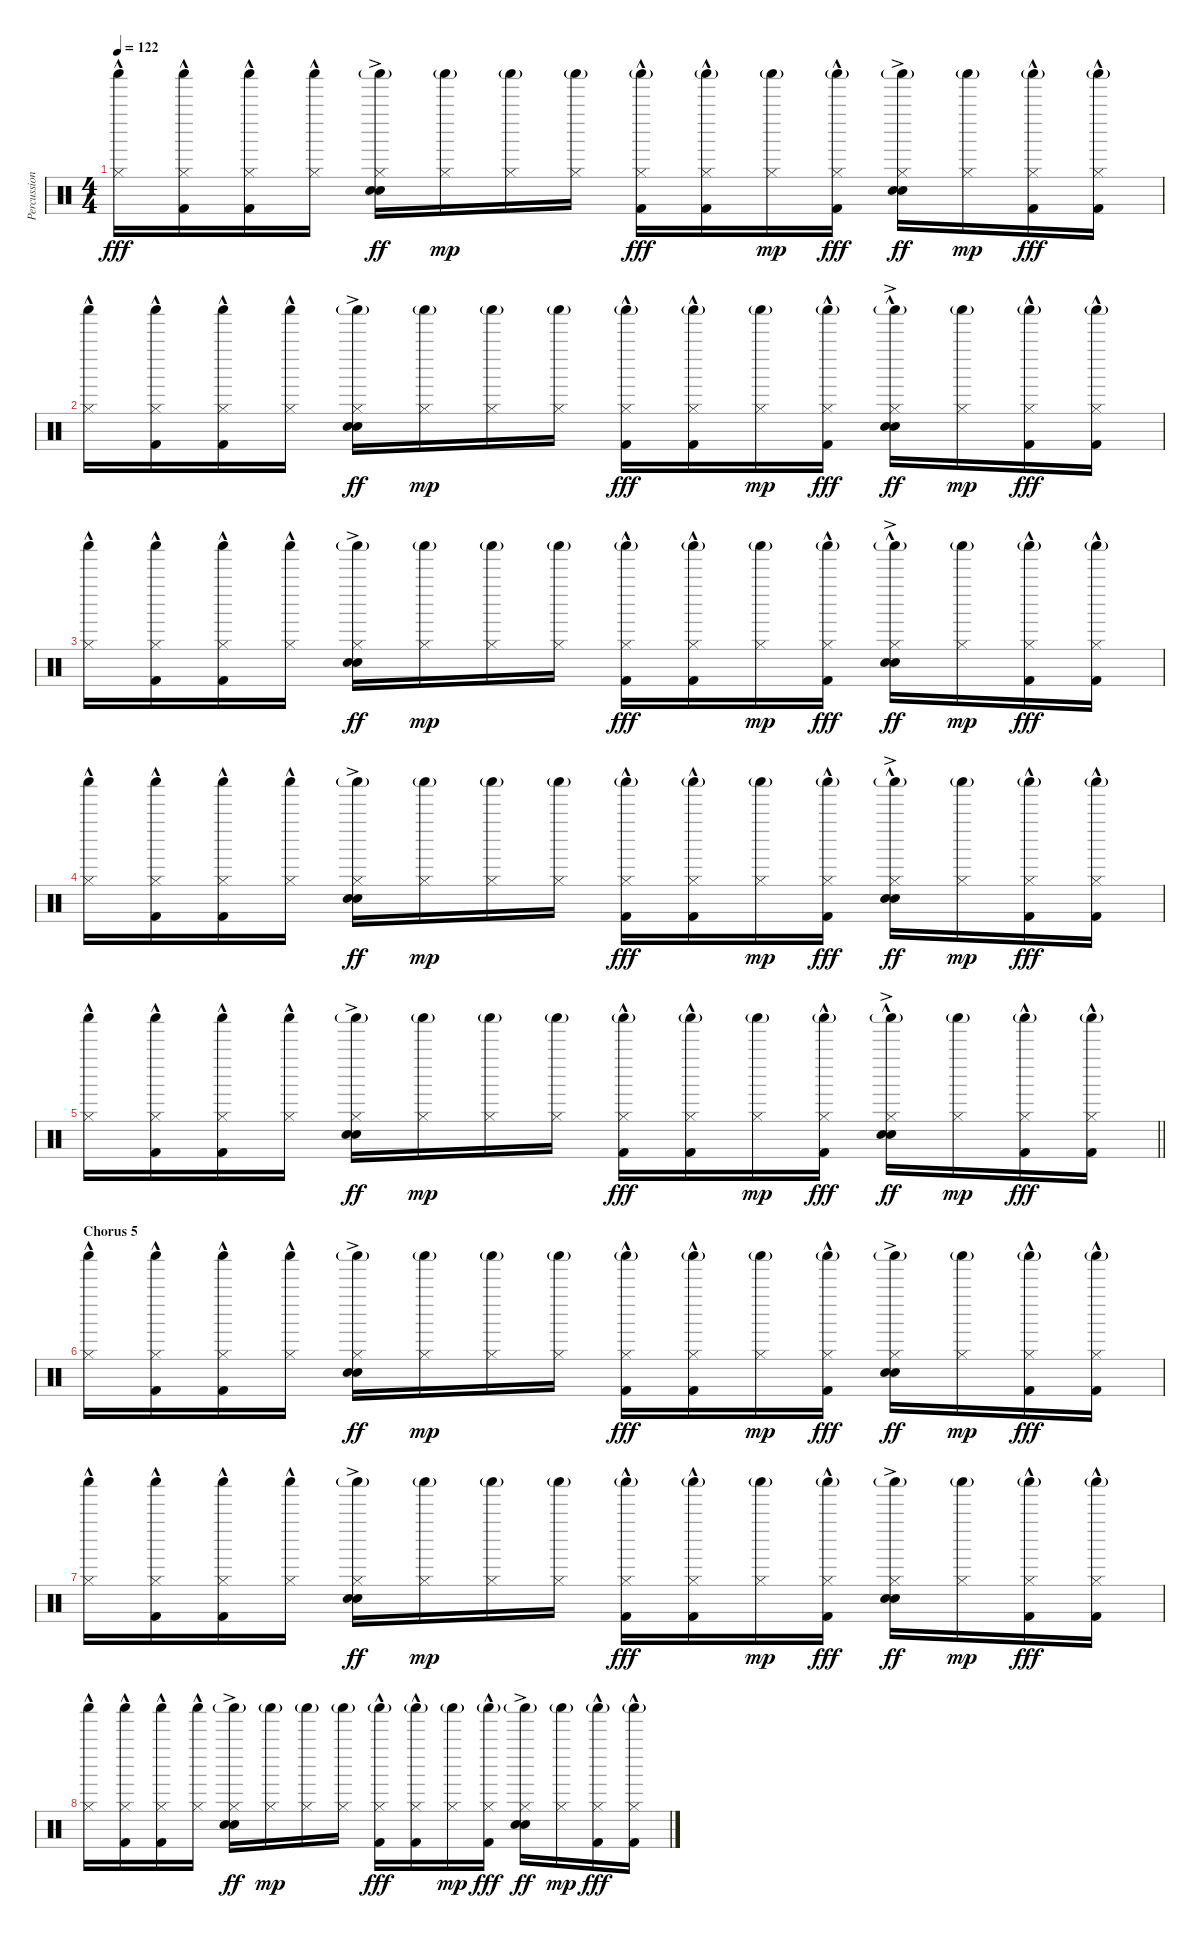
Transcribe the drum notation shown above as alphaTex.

\track ("Percussion" "Percussion") {instrument percussion}
\staff {score}
\articulation defaults
\ts (4 4)
\tempo 122
\clef neutral
\ks c
("Shaker (hit)" "Hi-Hat (closed)"{hac}).16{dy fff} ("Shaker (hit)" "Hi-Hat (closed)"{hac} "Kick (hit) 2"{hac}).16 ("Shaker (hit)" "Hi-Hat (closed)"{hac} "Kick (hit) 2"{hac}).16 ("Shaker (hit)" "Hi-Hat (closed)"{hac}).16 ("Shaker (hit)"{g} "Hi-Hat (closed)" "Hand Clap (hit)" "Snare (hit) 2"{ac}).16{dy ff} ("Shaker (hit)"{g} "Hi-Hat (closed)").16{dy mp} ("Shaker (hit)"{g} "Hi-Hat (closed)").16 ("Shaker (hit)"{g} "Hi-Hat (closed)").16 ("Shaker (hit)"{g} "Hi-Hat (closed)" "Kick (hit) 2"{hac}).16{dy fff} ("Shaker (hit)"{g} "Hi-Hat (closed)" "Kick (hit) 2"{hac}).16 ("Shaker (hit)"{g} "Hi-Hat (closed)").16{dy mp} ("Shaker (hit)"{g} "Hi-Hat (closed)" "Kick (hit) 2"{hac}).16{dy fff} ("Shaker (hit)"{g} "Hi-Hat (closed)" "Hand Clap (hit)"{ac} "Snare (hit) 2"{ac}).16{dy ff} ("Shaker (hit)"{g} "Hi-Hat (closed)").16{dy mp} ("Shaker (hit)"{g} "Hi-Hat (closed)" "Kick (hit) 2"{hac}).16{dy fff} ("Shaker (hit)"{g} "Hi-Hat (closed)" "Kick (hit) 2"{hac}).16 |
("Shaker (hit)" "Hi-Hat (closed)"{hac}).16 ("Shaker (hit)" "Hi-Hat (closed)"{hac} "Kick (hit) 2"{hac}).16 ("Shaker (hit)" "Hi-Hat (closed)"{hac} "Kick (hit) 2"{hac}).16 ("Shaker (hit)" "Hi-Hat (closed)"{hac}).16 ("Shaker (hit)"{g} "Hi-Hat (closed)" "Hand Clap (hit)"{ac} "Snare (hit) 2"{ac}).16{dy ff} ("Shaker (hit)"{g} "Hi-Hat (closed)").16{dy mp} ("Shaker (hit)"{g} "Hi-Hat (closed)").16 ("Shaker (hit)"{g} "Hi-Hat (closed)").16 ("Shaker (hit)"{g} "Hi-Hat (closed)" "Kick (hit) 2"{hac}).16{dy fff} ("Shaker (hit)"{g} "Hi-Hat (closed)" "Kick (hit) 2"{hac}).16 ("Shaker (hit)"{g} "Hi-Hat (closed)").16{dy mp} ("Shaker (hit)"{g} "Hi-Hat (closed)" "Kick (hit) 2"{hac}).16{dy fff} ("Shaker (hit)"{g} "Hi-Hat (closed)" "Hand Clap (hit)"{hac} "Snare (hit) 2"{ac}).16{dy ff} ("Shaker (hit)"{g} "Hi-Hat (closed)").16{dy mp} ("Shaker (hit)"{g} "Hi-Hat (closed)" "Kick (hit) 2"{hac}).16{dy fff} ("Shaker (hit)"{g} "Hi-Hat (closed)" "Kick (hit) 2"{hac}).16 |
("Shaker (hit)" "Hi-Hat (closed)"{hac}).16 ("Shaker (hit)" "Hi-Hat (closed)"{hac} "Kick (hit) 2"{hac}).16 ("Shaker (hit)" "Hi-Hat (closed)"{hac} "Kick (hit) 2"{hac}).16 ("Shaker (hit)" "Hi-Hat (closed)"{hac}).16 ("Shaker (hit)"{g} "Hi-Hat (closed)" "Hand Clap (hit)"{ac} "Snare (hit) 2"{ac}).16{dy ff} ("Shaker (hit)"{g} "Hi-Hat (closed)").16{dy mp} ("Shaker (hit)"{g} "Hi-Hat (closed)").16 ("Shaker (hit)"{g} "Hi-Hat (closed)").16 ("Shaker (hit)"{g} "Hi-Hat (closed)" "Kick (hit) 2"{hac}).16{dy fff} ("Shaker (hit)"{g} "Hi-Hat (closed)" "Kick (hit) 2"{hac}).16 ("Shaker (hit)"{g} "Hi-Hat (closed)").16{dy mp} ("Shaker (hit)"{g} "Hi-Hat (closed)" "Kick (hit) 2"{hac}).16{dy fff} ("Shaker (hit)"{g} "Hi-Hat (closed)" "Hand Clap (hit)"{hac} "Snare (hit) 2"{ac}).16{dy ff} ("Shaker (hit)"{g} "Hi-Hat (closed)").16{dy mp} ("Shaker (hit)"{g} "Hi-Hat (closed)" "Kick (hit) 2"{hac}).16{dy fff} ("Shaker (hit)"{g} "Hi-Hat (closed)" "Kick (hit) 2"{hac}).16 |
("Shaker (hit)" "Hi-Hat (closed)"{hac}).16 ("Shaker (hit)" "Hi-Hat (closed)"{hac} "Kick (hit) 2"{hac}).16 ("Shaker (hit)" "Hi-Hat (closed)"{hac} "Kick (hit) 2"{hac}).16 ("Shaker (hit)" "Hi-Hat (closed)"{hac}).16 ("Shaker (hit)"{g} "Hi-Hat (closed)" "Hand Clap (hit)"{ac} "Snare (hit) 2"{ac}).16{dy ff} ("Shaker (hit)"{g} "Hi-Hat (closed)").16{dy mp} ("Shaker (hit)"{g} "Hi-Hat (closed)").16 ("Shaker (hit)"{g} "Hi-Hat (closed)").16 ("Shaker (hit)"{g} "Hi-Hat (closed)" "Kick (hit) 2"{hac}).16{dy fff} ("Shaker (hit)"{g} "Hi-Hat (closed)" "Kick (hit) 2"{hac}).16 ("Shaker (hit)"{g} "Hi-Hat (closed)").16{dy mp} ("Shaker (hit)"{g} "Hi-Hat (closed)" "Kick (hit) 2"{hac}).16{dy fff} ("Shaker (hit)"{g} "Hi-Hat (closed)" "Hand Clap (hit)"{hac} "Snare (hit) 2"{ac}).16{dy ff} ("Shaker (hit)"{g} "Hi-Hat (closed)").16{dy mp} ("Shaker (hit)"{g} "Hi-Hat (closed)" "Kick (hit) 2"{hac}).16{dy fff} ("Shaker (hit)"{g} "Hi-Hat (closed)" "Kick (hit) 2"{hac}).16 |
\barLineRight lightlight
("Shaker (hit)" "Hi-Hat (closed)"{hac}).16 ("Shaker (hit)" "Hi-Hat (closed)"{hac} "Kick (hit) 2"{hac}).16 ("Shaker (hit)" "Hi-Hat (closed)"{hac} "Kick (hit) 2"{hac}).16 ("Shaker (hit)" "Hi-Hat (closed)"{hac}).16 ("Shaker (hit)"{g} "Hi-Hat (closed)" "Hand Clap (hit)"{ac} "Snare (hit) 2"{ac}).16{dy ff} ("Shaker (hit)"{g} "Hi-Hat (closed)").16{dy mp} ("Shaker (hit)"{g} "Hi-Hat (closed)").16 ("Shaker (hit)"{g} "Hi-Hat (closed)").16 ("Shaker (hit)"{g} "Hi-Hat (closed)" "Kick (hit) 2"{hac}).16{dy fff} ("Shaker (hit)"{g} "Hi-Hat (closed)" "Kick (hit) 2"{hac}).16 ("Shaker (hit)"{g} "Hi-Hat (closed)").16{dy mp} ("Shaker (hit)"{g} "Hi-Hat (closed)" "Kick (hit) 2"{hac}).16{dy fff} ("Shaker (hit)"{g} "Hi-Hat (closed)" "Hand Clap (hit)"{hac} "Snare (hit) 2"{ac}).16{dy ff} ("Shaker (hit)"{g} "Hi-Hat (closed)").16{dy mp} ("Shaker (hit)"{g} "Hi-Hat (closed)" "Kick (hit) 2"{hac}).16{dy fff} ("Shaker (hit)"{g} "Hi-Hat (closed)" "Kick (hit) 2"{hac}).16 |
\section ("" "Chorus 5")
("Shaker (hit)" "Hi-Hat (closed)"{hac}).16 ("Shaker (hit)" "Hi-Hat (closed)"{hac} "Kick (hit) 2"{hac}).16 ("Shaker (hit)" "Hi-Hat (closed)"{hac} "Kick (hit) 2"{hac}).16 ("Shaker (hit)" "Hi-Hat (closed)"{hac}).16 ("Shaker (hit)"{g} "Hi-Hat (closed)" "Hand Clap (hit)" "Snare (hit) 2"{ac}).16{dy ff} ("Shaker (hit)"{g} "Hi-Hat (closed)").16{dy mp} ("Shaker (hit)"{g} "Hi-Hat (closed)").16 ("Shaker (hit)"{g} "Hi-Hat (closed)").16 ("Shaker (hit)"{g} "Hi-Hat (closed)" "Kick (hit) 2"{hac}).16{dy fff} ("Shaker (hit)"{g} "Hi-Hat (closed)" "Kick (hit) 2"{hac}).16 ("Shaker (hit)"{g} "Hi-Hat (closed)").16{dy mp} ("Shaker (hit)"{g} "Hi-Hat (closed)" "Kick (hit) 2"{hac}).16{dy fff} ("Shaker (hit)"{g} "Hi-Hat (closed)" "Hand Clap (hit)"{ac} "Snare (hit) 2"{ac}).16{dy ff} ("Shaker (hit)"{g} "Hi-Hat (closed)").16{dy mp} ("Shaker (hit)"{g} "Hi-Hat (closed)" "Kick (hit) 2"{hac}).16{dy fff} ("Shaker (hit)"{g} "Hi-Hat (closed)" "Kick (hit) 2"{hac}).16 |
("Shaker (hit)" "Hi-Hat (closed)"{hac}).16 ("Shaker (hit)" "Hi-Hat (closed)"{hac} "Kick (hit) 2"{hac}).16 ("Shaker (hit)" "Hi-Hat (closed)"{hac} "Kick (hit) 2"{hac}).16 ("Shaker (hit)" "Hi-Hat (closed)"{hac}).16 ("Shaker (hit)"{g} "Hi-Hat (closed)" "Hand Clap (hit)" "Snare (hit) 2"{ac}).16{dy ff} ("Shaker (hit)"{g} "Hi-Hat (closed)").16{dy mp} ("Shaker (hit)"{g} "Hi-Hat (closed)").16 ("Shaker (hit)"{g} "Hi-Hat (closed)").16 ("Shaker (hit)"{g} "Hi-Hat (closed)" "Kick (hit) 2"{hac}).16{dy fff} ("Shaker (hit)"{g} "Hi-Hat (closed)" "Kick (hit) 2"{hac}).16 ("Shaker (hit)"{g} "Hi-Hat (closed)").16{dy mp} ("Shaker (hit)"{g} "Hi-Hat (closed)" "Kick (hit) 2"{hac}).16{dy fff} ("Shaker (hit)"{g} "Hi-Hat (closed)" "Hand Clap (hit)"{ac} "Snare (hit) 2"{ac}).16{dy ff} ("Shaker (hit)"{g} "Hi-Hat (closed)").16{dy mp} ("Shaker (hit)"{g} "Hi-Hat (closed)" "Kick (hit) 2"{hac}).16{dy fff} ("Shaker (hit)"{g} "Hi-Hat (closed)" "Kick (hit) 2"{hac}).16 |
("Shaker (hit)" "Hi-Hat (closed)"{hac}).16 ("Shaker (hit)" "Hi-Hat (closed)"{hac} "Kick (hit) 2"{hac}).16 ("Shaker (hit)" "Hi-Hat (closed)"{hac} "Kick (hit) 2"{hac}).16 ("Shaker (hit)" "Hi-Hat (closed)"{hac}).16 ("Shaker (hit)"{g} "Hi-Hat (closed)" "Hand Clap (hit)" "Snare (hit) 2"{ac}).16{dy ff} ("Shaker (hit)"{g} "Hi-Hat (closed)").16{dy mp} ("Shaker (hit)"{g} "Hi-Hat (closed)").16 ("Shaker (hit)"{g} "Hi-Hat (closed)").16 ("Shaker (hit)"{g} "Hi-Hat (closed)" "Kick (hit) 2"{hac}).16{dy fff} ("Shaker (hit)"{g} "Hi-Hat (closed)" "Kick (hit) 2"{hac}).16 ("Shaker (hit)"{g} "Hi-Hat (closed)").16{dy mp} ("Shaker (hit)"{g} "Hi-Hat (closed)" "Kick (hit) 2"{hac}).16{dy fff} ("Shaker (hit)"{g} "Hi-Hat (closed)" "Hand Clap (hit)"{ac} "Snare (hit) 2"{ac}).16{dy ff} ("Shaker (hit)"{g} "Hi-Hat (closed)").16{dy mp} ("Shaker (hit)"{g} "Hi-Hat (closed)" "Kick (hit) 2"{hac}).16{dy fff} ("Shaker (hit)"{g} "Hi-Hat (closed)" "Kick (hit) 2"{hac}).16
